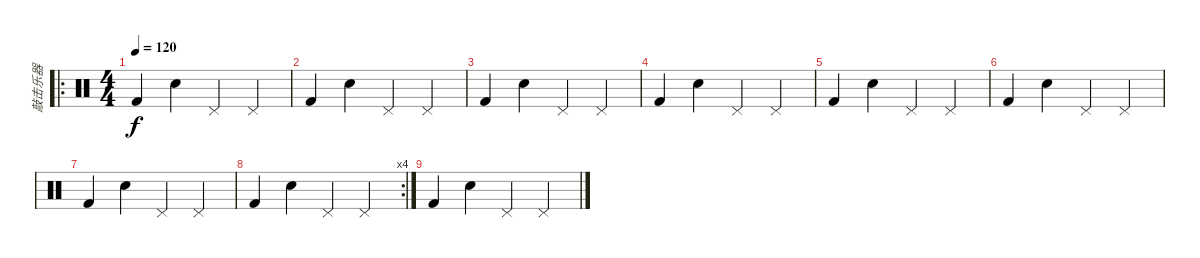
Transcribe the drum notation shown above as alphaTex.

\track ("敲击乐器" "敲击乐器") {instrument percussion}
\staff {score}
\articulation defaults
\ro
\ts (4 4)
\tempo 120
\clef neutral
\ks c "Kick (hit) 2".4{dy f} "Electric Snare (hit)".4 "Pedal Hi-Hat (hit)".4 "Pedal Hi-Hat (hit)".4
|
"Kick (hit) 2".4 "Electric Snare (hit)".4 "Pedal Hi-Hat (hit)".4 "Pedal Hi-Hat (hit)".4 |
"Kick (hit) 2".4 "Electric Snare (hit)".4 "Pedal Hi-Hat (hit)".4 "Pedal Hi-Hat (hit)".4 |
"Kick (hit) 2".4 "Electric Snare (hit)".4 "Pedal Hi-Hat (hit)".4 "Pedal Hi-Hat (hit)".4 |
"Kick (hit) 2".4 "Electric Snare (hit)".4 "Pedal Hi-Hat (hit)".4 "Pedal Hi-Hat (hit)".4 |
"Kick (hit) 2".4 "Electric Snare (hit)".4 "Pedal Hi-Hat (hit)".4 "Pedal Hi-Hat (hit)".4 |
"Kick (hit) 2".4 "Electric Snare (hit)".4 "Pedal Hi-Hat (hit)".4 "Pedal Hi-Hat (hit)".4 |
\rc 4 "Kick (hit) 2".4 "Electric Snare (hit)".4 "Pedal Hi-Hat (hit)".4 "Pedal Hi-Hat (hit)".4
|
"Kick (hit) 2".4 "Electric Snare (hit)".4 "Pedal Hi-Hat (hit)".4 "Pedal Hi-Hat (hit)".4
